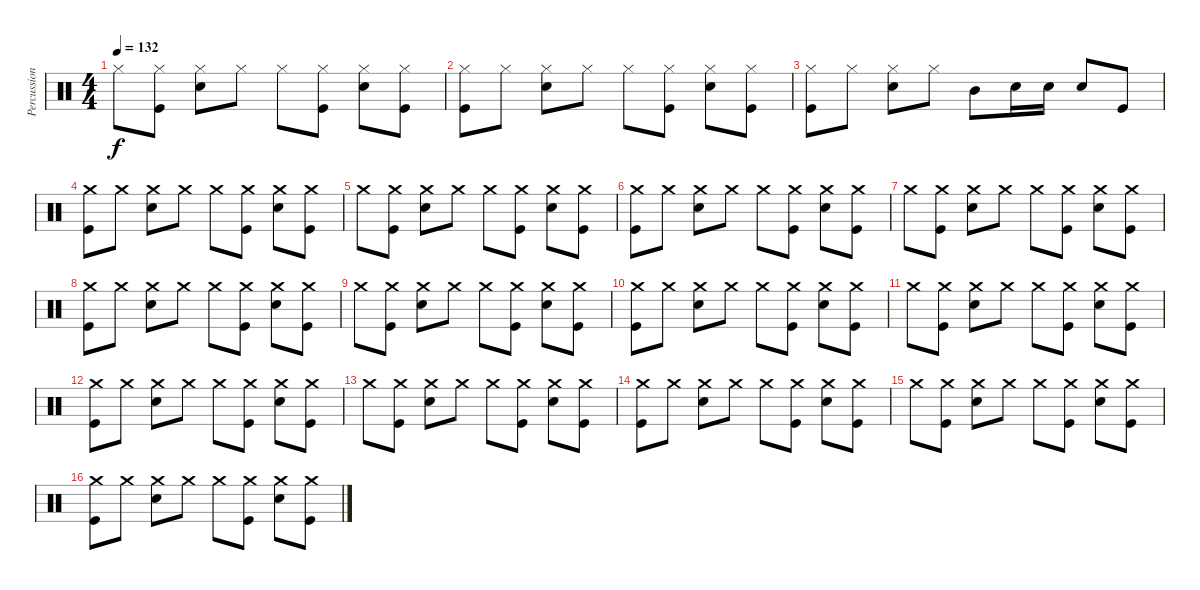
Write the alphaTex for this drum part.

\track ("Percussion" "Percussion") {instrument percussion}
\staff {score}
\articulation defaults
\ts (4 4)
\tempo 132
\clef neutral
\ks c "Hi-Hat (closed)".8{dy f}
("Hi-Hat (closed)" "Kick (hit)").8 ("Hi-Hat (closed)" "Snare (hit) 2").8 "Hi-Hat (closed)".8 "Hi-Hat (closed)".8 ("Hi-Hat (closed)" "Kick (hit)").8 ("Hi-Hat (closed)" "Snare (hit) 2").8 ("Hi-Hat (closed)" "Kick (hit)").8 |
("Hi-Hat (closed)" "Kick (hit)").8 "Hi-Hat (closed)".8 ("Hi-Hat (closed)" "Snare (hit) 2").8 "Hi-Hat (closed)".8 "Hi-Hat (closed)".8 ("Hi-Hat (closed)" "Kick (hit)").8 ("Hi-Hat (closed)" "Snare (hit) 2").8 ("Hi-Hat (closed)" "Kick (hit)").8 |
("Hi-Hat (closed)" "Kick (hit)").8 "Hi-Hat (closed)".8 ("Hi-Hat (closed)" "Snare (hit) 2").8 "Hi-Hat (closed)".8 "Mid Tom (hit)".8 "Snare (hit) 2".16 "Snare (hit) 2".16 "Snare (hit) 2".8 "Kick (hit)".8 |
("Crash medium (hit)" "Kick (hit)").8 "Crash medium (hit)".8 ("Crash medium (hit)" "Snare (hit) 2").8 "Crash medium (hit)".8 "Crash medium (hit)".8 ("Crash medium (hit)" "Kick (hit)").8 ("Crash medium (hit)" "Snare (hit) 2").8 ("Crash medium (hit)" "Kick (hit)").8 |
"Crash medium (hit)".8 ("Crash medium (hit)" "Kick (hit)").8 ("Crash medium (hit)" "Snare (hit) 2").8 "Crash medium (hit)".8 "Crash medium (hit)".8 ("Crash medium (hit)" "Kick (hit)").8 ("Crash medium (hit)" "Snare (hit) 2").8 ("Crash medium (hit)" "Kick (hit)").8 |
("Crash medium (hit)" "Kick (hit)").8 "Crash medium (hit)".8 ("Crash medium (hit)" "Snare (hit) 2").8 "Crash medium (hit)".8 "Crash medium (hit)".8 ("Crash medium (hit)" "Kick (hit)").8 ("Crash medium (hit)" "Snare (hit) 2").8 ("Crash medium (hit)" "Kick (hit)").8 |
"Crash medium (hit)".8 ("Crash medium (hit)" "Kick (hit)").8 ("Crash medium (hit)" "Snare (hit) 2").8 "Crash medium (hit)".8 "Crash medium (hit)".8 ("Crash medium (hit)" "Kick (hit)").8 ("Crash medium (hit)" "Snare (hit) 2").8 ("Crash medium (hit)" "Kick (hit)").8 |
("Crash medium (hit)" "Kick (hit)").8 "Crash medium (hit)".8 ("Crash medium (hit)" "Snare (hit) 2").8 "Crash medium (hit)".8 "Crash medium (hit)".8 ("Crash medium (hit)" "Kick (hit)").8 ("Crash medium (hit)" "Snare (hit) 2").8 ("Crash medium (hit)" "Kick (hit)").8 |
"Crash medium (hit)".8 ("Crash medium (hit)" "Kick (hit)").8 ("Crash medium (hit)" "Snare (hit) 2").8 "Crash medium (hit)".8 "Crash medium (hit)".8 ("Crash medium (hit)" "Kick (hit)").8 ("Crash medium (hit)" "Snare (hit) 2").8 ("Crash medium (hit)" "Kick (hit)").8 |
("Crash medium (hit)" "Kick (hit)").8 "Crash medium (hit)".8 ("Crash medium (hit)" "Snare (hit) 2").8 "Crash medium (hit)".8 "Crash medium (hit)".8 ("Crash medium (hit)" "Kick (hit)").8 ("Crash medium (hit)" "Snare (hit) 2").8 ("Crash medium (hit)" "Kick (hit)").8 |
"Crash medium (hit)".8 ("Crash medium (hit)" "Kick (hit)").8 ("Crash medium (hit)" "Snare (hit) 2").8 "Crash medium (hit)".8 "Crash medium (hit)".8 ("Crash medium (hit)" "Kick (hit)").8 ("Crash medium (hit)" "Snare (hit) 2").8 ("Crash medium (hit)" "Kick (hit)").8 |
("Crash medium (hit)" "Kick (hit)").8 "Crash medium (hit)".8 ("Crash medium (hit)" "Snare (hit) 2").8 "Crash medium (hit)".8 "Crash medium (hit)".8 ("Crash medium (hit)" "Kick (hit)").8 ("Crash medium (hit)" "Snare (hit) 2").8 ("Crash medium (hit)" "Kick (hit)").8 |
"Crash medium (hit)".8 ("Crash medium (hit)" "Kick (hit)").8 ("Crash medium (hit)" "Snare (hit) 2").8 "Crash medium (hit)".8 "Crash medium (hit)".8 ("Crash medium (hit)" "Kick (hit)").8 ("Crash medium (hit)" "Snare (hit) 2").8 ("Crash medium (hit)" "Kick (hit)").8 |
("Crash medium (hit)" "Kick (hit)").8 "Crash medium (hit)".8 ("Crash medium (hit)" "Snare (hit) 2").8 "Crash medium (hit)".8 "Crash medium (hit)".8 ("Crash medium (hit)" "Kick (hit)").8 ("Crash medium (hit)" "Snare (hit) 2").8 ("Crash medium (hit)" "Kick (hit)").8 |
"Crash medium (hit)".8 ("Crash medium (hit)" "Kick (hit)").8 ("Crash medium (hit)" "Snare (hit) 2").8 "Crash medium (hit)".8 "Crash medium (hit)".8 ("Crash medium (hit)" "Kick (hit)").8 ("Crash medium (hit)" "Snare (hit) 2").8 ("Crash medium (hit)" "Kick (hit)").8 |
("Crash medium (hit)" "Kick (hit)").8 "Crash medium (hit)".8 ("Crash medium (hit)" "Snare (hit) 2").8 "Crash medium (hit)".8 "Crash medium (hit)".8 ("Crash medium (hit)" "Kick (hit)").8 ("Crash medium (hit)" "Snare (hit) 2").8 ("Crash medium (hit)" "Kick (hit)").8
